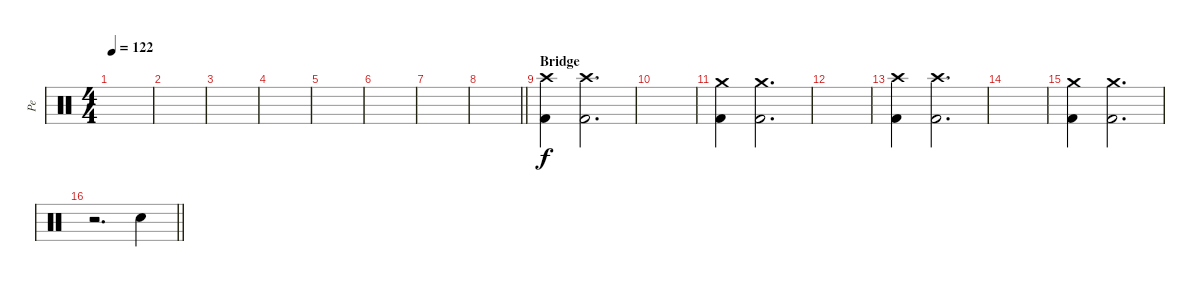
\track ("Pe" "Pe") {instrument percussion}
\staff {score}
\articulation defaults
\ts (4 4)
\tempo 122
\clef neutral
\ks c
|
|
|
|
|
|
|
\barLineRight lightlight
|
\section ("" "Bridge")
("Kick (hit) 2" "Crash high (hit)").4 ("Kick (hit) 2" "Crash high (hit)").2{d} |
|
("Kick (hit) 2" "Crash medium (hit)").4 ("Kick (hit) 2" "Crash medium (hit)").2{d} |
|
("Kick (hit) 2" "Crash high (hit)").4 ("Kick (hit) 2" "Crash high (hit)").2{d} |
|
("Kick (hit) 2" "Crash medium (hit)").4 ("Kick (hit) 2" "Crash medium (hit)").2{d} |
\barLineRight lightlight
r.2{d} "Electric Snare (hit)".4
